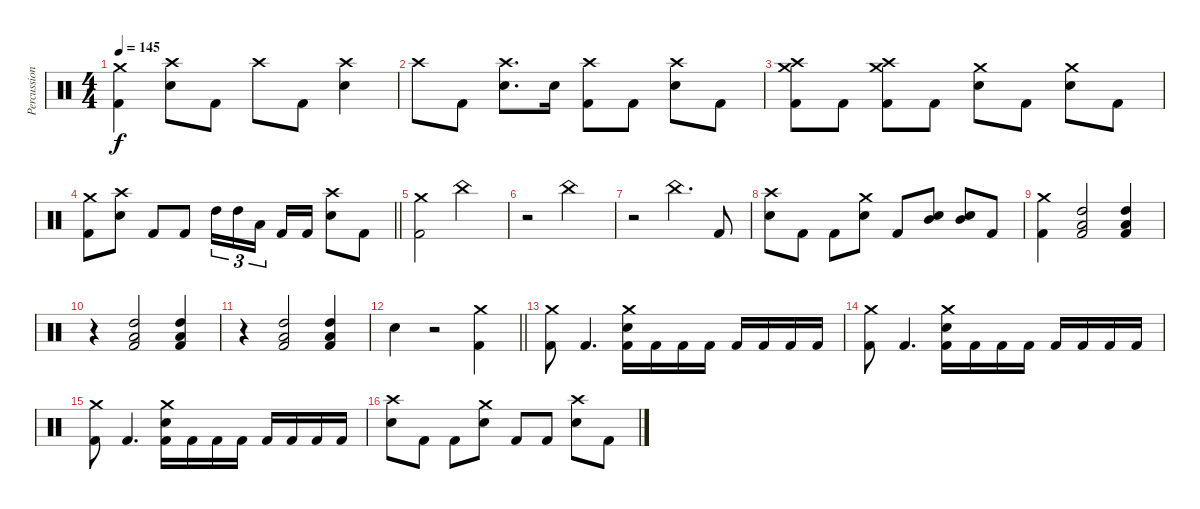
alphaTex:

\track ("Percussion" "Percussion") {instrument percussion}
\staff {score}
\articulation defaults
\ts (4 4)
\tempo 145
\clef neutral
\ks c
("Crash medium (hit)" "Kick (hit) 2").4{dy f} ("Crash high (hit)" "Electric Snare (hit)").8 "Kick (hit) 2".8 "Crash high (hit)".8 "Kick (hit) 2".8 ("Crash high (hit)" "Electric Snare (hit)").4 |
"Crash high (hit)".8 "Kick (hit) 2".8 ("Crash high (hit)" "Electric Snare (hit)").8{d} "Electric Snare (hit)".16 ("Crash high (hit)" "Kick (hit) 2").8 "Kick (hit) 2".8 ("Crash high (hit)" "Electric Snare (hit)").8 "Kick (hit) 2".8 |
("Crash medium (hit)" "Crash high (hit)" "Kick (hit) 2").8 "Kick (hit) 2".8 ("Crash medium (hit)" "Crash high (hit)" "Kick (hit) 2").8 "Kick (hit) 2".8 ("Crash medium (hit)" "Electric Snare (hit)").8 "Kick (hit) 2".8 ("Crash medium (hit)" "Electric Snare (hit)").8 "Kick (hit) 2".8 |
\barLineRight lightlight
("Crash medium (hit)" "Kick (hit) 2").8 ("Crash high (hit)" "Electric Snare (hit)").8 "Kick (hit) 2".8 "Kick (hit) 2".8 "High Tom (hit)".16{tu (3 2)} "High Tom (hit)".16{tu (3 2)} "Low Tom (hit)".16{tu (3 2) beam splitsecondary} "Kick (hit) 2".16 "Kick (hit) 2".16 ("Crash high (hit)" "Electric Snare (hit)").8 "Kick (hit) 2".8 |
\section ("" "")
("Crash medium (hit)" "Kick (hit) 2").2 "China (hit)".2 |
r.2 "China (hit)".2 |
r.2 "China (hit)".4{d} "Kick (hit) 2".8 |
("Crash high (hit)" "Electric Snare (hit)").8 "Kick (hit) 2".8 "Kick (hit) 2".8 ("Crash medium (hit)" "Electric Snare (hit)").8 "Kick (hit) 2".8 ("Mid Tom (hit)" "Electric Snare (hit)").8 ("Mid Tom (hit)" "Electric Snare (hit)").8 "Kick (hit) 2".8 |
("Crash medium (hit)" "Kick (hit) 2").4 ("High Tom (hit)" "Low Tom (hit)" "Kick (hit) 2").2 ("High Tom (hit)" "Low Tom (hit)" "Kick (hit) 2").4 |
r.4 ("High Tom (hit)" "Low Tom (hit)" "Kick (hit) 2").2 ("High Tom (hit)" "Low Tom (hit)" "Kick (hit) 2").4 |
r.4 ("High Tom (hit)" "Low Tom (hit)" "Kick (hit) 2").2 ("High Tom (hit)" "Low Tom (hit)" "Kick (hit) 2").4 |
\barLineRight lightlight "Snare (hit) 2".4
r.2 ("Crash medium (hit)" "Kick (hit) 2").4 |
\section ("" "")
("Crash medium (hit)" "Kick (hit) 2").8 "Kick (hit) 2".4{d} ("Crash medium (hit)" "Electric Snare (hit)" "Kick (hit) 2").16 "Kick (hit) 2".16 "Kick (hit) 2".16 "Kick (hit) 2".16 "Kick (hit) 2".16 "Kick (hit) 2".16 "Kick (hit) 2".16 "Kick (hit) 2".16 |
("Crash medium (hit)" "Kick (hit) 2").8 "Kick (hit) 2".4{d} ("Crash medium (hit)" "Electric Snare (hit)" "Kick (hit) 2").16 "Kick (hit) 2".16 "Kick (hit) 2".16 "Kick (hit) 2".16 "Kick (hit) 2".16 "Kick (hit) 2".16 "Kick (hit) 2".16 "Kick (hit) 2".16 |
("Crash medium (hit)" "Kick (hit) 2").8 "Kick (hit) 2".4{d} ("Crash medium (hit)" "Electric Snare (hit)" "Kick (hit) 2").16 "Kick (hit) 2".16 "Kick (hit) 2".16 "Kick (hit) 2".16 "Kick (hit) 2".16 "Kick (hit) 2".16 "Kick (hit) 2".16 "Kick (hit) 2".16 |
("Crash high (hit)" "Electric Snare (hit)").8 "Kick (hit) 2".8 "Kick (hit) 2".8 ("Crash medium (hit)" "Electric Snare (hit)").8 "Kick (hit) 2".8 "Kick (hit) 2".8 ("Crash high (hit)" "Electric Snare (hit)").8 "Kick (hit) 2".8
